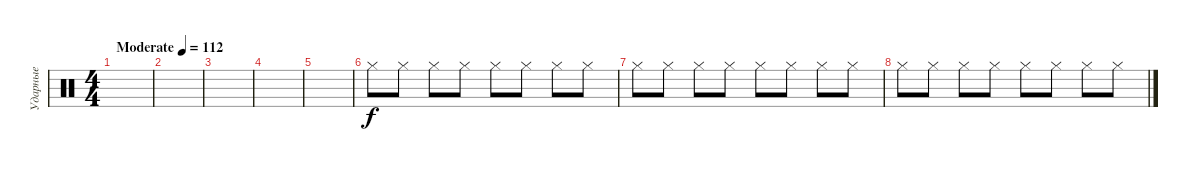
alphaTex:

\track ("Ударные" "Ударные") {instrument percussion}
\staff {score}
\articulation defaults
\ts (4 4)
\tempo (112 "Moderate")
\clef neutral
\ks c
|
|
|
|
|
"Hi-Hat (closed)".8 "Hi-Hat (closed)".8 "Hi-Hat (closed)".8 "Hi-Hat (closed)".8 "Hi-Hat (closed)".8 "Hi-Hat (closed)".8 "Hi-Hat (closed)".8 "Hi-Hat (closed)".8 |
"Hi-Hat (closed)".8 "Hi-Hat (closed)".8 "Hi-Hat (closed)".8 "Hi-Hat (closed)".8 "Hi-Hat (closed)".8 "Hi-Hat (closed)".8 "Hi-Hat (closed)".8 "Hi-Hat (closed)".8 |
"Hi-Hat (closed)".8 "Hi-Hat (closed)".8 "Hi-Hat (closed)".8 "Hi-Hat (closed)".8 "Hi-Hat (closed)".8 "Hi-Hat (closed)".8 "Hi-Hat (closed)".8 "Hi-Hat (closed)".8
